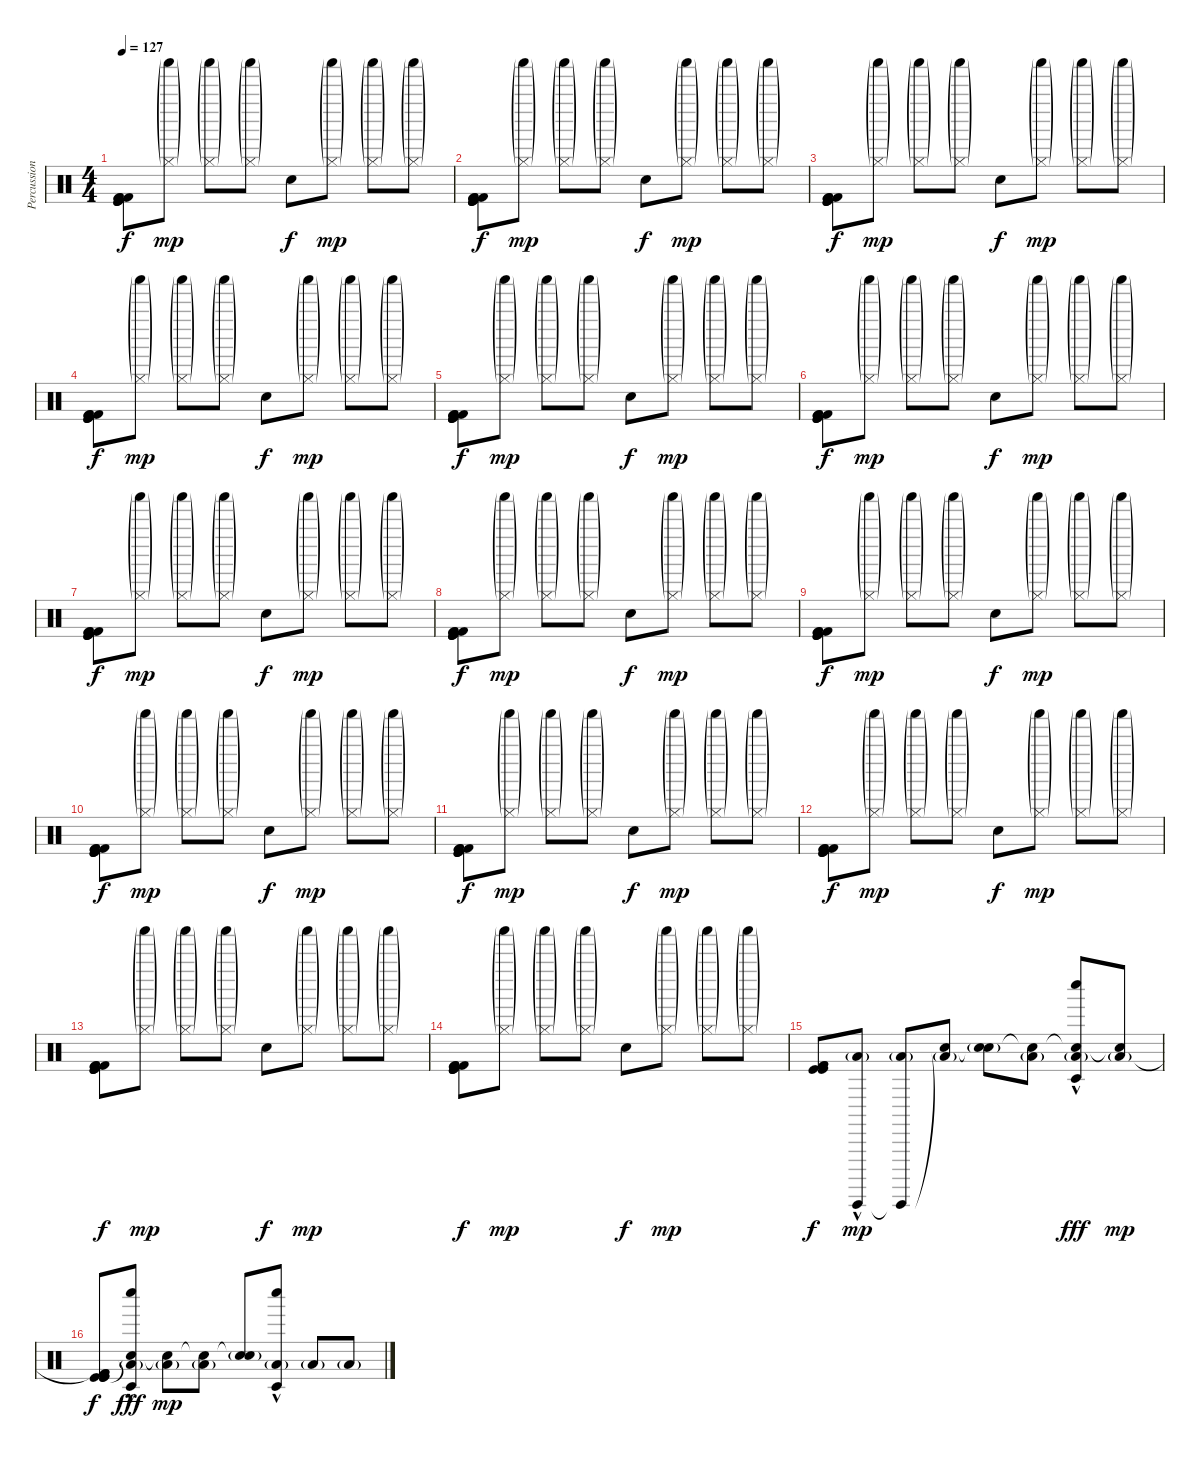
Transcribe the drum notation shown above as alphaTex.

\track ("Percussion" "Percussion") {instrument percussion}
\staff {score}
\articulation defaults
\ts (4 4)
\tempo 127
\clef neutral
\ks c
("Kick (hit)" "Kick (hit) 2" "Kick (hit)" "Kick (hit) 2" "Kick (hit)" "Kick (hit) 2").8{dy f} ("Shaker (hit)"{g} "Hi-Hat (closed)"{g}).8{dy mp} ("Shaker (hit)"{g} "Hi-Hat (closed)"{g}).8 ("Shaker (hit)"{g} "Hi-Hat (closed)"{g}).8 "Electric Snare (hit)".8{dy f} ("Shaker (hit)"{g} "Hi-Hat (closed)"{g}).8{dy mp} ("Shaker (hit)"{g} "Hi-Hat (closed)"{g}).8 ("Shaker (hit)"{g} "Hi-Hat (closed)"{g}).8 |
("Kick (hit)" "Kick (hit) 2" "Kick (hit)" "Kick (hit) 2" "Kick (hit)" "Kick (hit) 2").8{dy f} ("Shaker (hit)"{g} "Hi-Hat (closed)"{g}).8{dy mp} ("Shaker (hit)"{g} "Hi-Hat (closed)"{g}).8 ("Shaker (hit)"{g} "Hi-Hat (closed)"{g}).8 "Electric Snare (hit)".8{dy f} ("Shaker (hit)"{g} "Hi-Hat (closed)"{g}).8{dy mp} ("Shaker (hit)"{g} "Hi-Hat (closed)"{g}).8 ("Shaker (hit)"{g} "Hi-Hat (closed)"{g}).8 |
("Kick (hit)" "Kick (hit) 2" "Kick (hit)" "Kick (hit) 2" "Kick (hit)" "Kick (hit) 2").8{dy f} ("Shaker (hit)"{g} "Hi-Hat (closed)"{g}).8{dy mp} ("Shaker (hit)"{g} "Hi-Hat (closed)"{g}).8 ("Shaker (hit)"{g} "Hi-Hat (closed)"{g}).8 "Electric Snare (hit)".8{dy f} ("Shaker (hit)"{g} "Hi-Hat (closed)"{g}).8{dy mp} ("Shaker (hit)"{g} "Hi-Hat (closed)"{g}).8 ("Shaker (hit)"{g} "Hi-Hat (closed)"{g}).8 |
("Kick (hit)" "Kick (hit) 2" "Kick (hit)" "Kick (hit) 2" "Kick (hit)" "Kick (hit) 2").8{dy f} ("Shaker (hit)"{g} "Hi-Hat (closed)"{g}).8{dy mp} ("Shaker (hit)"{g} "Hi-Hat (closed)"{g}).8 ("Shaker (hit)"{g} "Hi-Hat (closed)"{g}).8 "Electric Snare (hit)".8{dy f} ("Shaker (hit)"{g} "Hi-Hat (closed)"{g}).8{dy mp} ("Shaker (hit)"{g} "Hi-Hat (closed)"{g}).8 ("Shaker (hit)"{g} "Hi-Hat (closed)"{g}).8 |
("Kick (hit)" "Kick (hit) 2" "Kick (hit)" "Kick (hit) 2" "Kick (hit)" "Kick (hit) 2").8{dy f} ("Shaker (hit)"{g} "Hi-Hat (closed)"{g}).8{dy mp} ("Shaker (hit)"{g} "Hi-Hat (closed)"{g}).8 ("Shaker (hit)"{g} "Hi-Hat (closed)"{g}).8 "Electric Snare (hit)".8{dy f} ("Shaker (hit)"{g} "Hi-Hat (closed)"{g}).8{dy mp} ("Shaker (hit)"{g} "Hi-Hat (closed)"{g}).8 ("Shaker (hit)"{g} "Hi-Hat (closed)"{g}).8 |
("Kick (hit)" "Kick (hit) 2" "Kick (hit)" "Kick (hit) 2" "Kick (hit)" "Kick (hit) 2").8{dy f} ("Shaker (hit)"{g} "Hi-Hat (closed)"{g}).8{dy mp} ("Shaker (hit)"{g} "Hi-Hat (closed)"{g}).8 ("Shaker (hit)"{g} "Hi-Hat (closed)"{g}).8 "Electric Snare (hit)".8{dy f} ("Shaker (hit)"{g} "Hi-Hat (closed)"{g}).8{dy mp} ("Shaker (hit)"{g} "Hi-Hat (closed)"{g}).8 ("Shaker (hit)"{g} "Hi-Hat (closed)"{g}).8 |
("Kick (hit)" "Kick (hit) 2" "Kick (hit)" "Kick (hit) 2" "Kick (hit)" "Kick (hit) 2").8{dy f} ("Shaker (hit)"{g} "Hi-Hat (closed)"{g}).8{dy mp} ("Shaker (hit)"{g} "Hi-Hat (closed)"{g}).8 ("Shaker (hit)"{g} "Hi-Hat (closed)"{g}).8 "Electric Snare (hit)".8{dy f} ("Shaker (hit)"{g} "Hi-Hat (closed)"{g}).8{dy mp} ("Shaker (hit)"{g} "Hi-Hat (closed)"{g}).8 ("Shaker (hit)"{g} "Hi-Hat (closed)"{g}).8 |
("Kick (hit)" "Kick (hit) 2" "Kick (hit)" "Kick (hit) 2" "Kick (hit)" "Kick (hit) 2").8{dy f} ("Shaker (hit)"{g} "Hi-Hat (closed)"{g}).8{dy mp} ("Shaker (hit)"{g} "Hi-Hat (closed)"{g}).8 ("Shaker (hit)"{g} "Hi-Hat (closed)"{g}).8 "Electric Snare (hit)".8{dy f} ("Shaker (hit)"{g} "Hi-Hat (closed)"{g}).8{dy mp} ("Shaker (hit)"{g} "Hi-Hat (closed)"{g}).8 ("Shaker (hit)"{g} "Hi-Hat (closed)"{g}).8 |
("Kick (hit)" "Kick (hit) 2" "Kick (hit)" "Kick (hit) 2" "Kick (hit)" "Kick (hit) 2").8{dy f} ("Shaker (hit)"{g} "Hi-Hat (closed)"{g}).8{dy mp} ("Shaker (hit)"{g} "Hi-Hat (closed)"{g}).8 ("Shaker (hit)"{g} "Hi-Hat (closed)"{g}).8 "Electric Snare (hit)".8{dy f} ("Shaker (hit)"{g} "Hi-Hat (closed)"{g}).8{dy mp} ("Shaker (hit)"{g} "Hi-Hat (closed)"{g}).8 ("Shaker (hit)"{g} "Hi-Hat (closed)"{g}).8 |
("Kick (hit)" "Kick (hit) 2" "Kick (hit)" "Kick (hit) 2" "Kick (hit)" "Kick (hit) 2").8{dy f} ("Shaker (hit)"{g} "Hi-Hat (closed)"{g}).8{dy mp} ("Shaker (hit)"{g} "Hi-Hat (closed)"{g}).8 ("Shaker (hit)"{g} "Hi-Hat (closed)"{g}).8 "Electric Snare (hit)".8{dy f} ("Shaker (hit)"{g} "Hi-Hat (closed)"{g}).8{dy mp} ("Shaker (hit)"{g} "Hi-Hat (closed)"{g}).8 ("Shaker (hit)"{g} "Hi-Hat (closed)"{g}).8 |
("Kick (hit)" "Kick (hit) 2" "Kick (hit)" "Kick (hit) 2" "Kick (hit)" "Kick (hit) 2").8{dy f} ("Shaker (hit)"{g} "Hi-Hat (closed)"{g}).8{dy mp} ("Shaker (hit)"{g} "Hi-Hat (closed)"{g}).8 ("Shaker (hit)"{g} "Hi-Hat (closed)"{g}).8 "Electric Snare (hit)".8{dy f} ("Shaker (hit)"{g} "Hi-Hat (closed)"{g}).8{dy mp} ("Shaker (hit)"{g} "Hi-Hat (closed)"{g}).8 ("Shaker (hit)"{g} "Hi-Hat (closed)"{g}).8 |
("Kick (hit)" "Kick (hit) 2" "Kick (hit)" "Kick (hit) 2" "Kick (hit)" "Kick (hit) 2").8{dy f} ("Shaker (hit)"{g} "Hi-Hat (closed)"{g}).8{dy mp} ("Shaker (hit)"{g} "Hi-Hat (closed)"{g}).8 ("Shaker (hit)"{g} "Hi-Hat (closed)"{g}).8 "Electric Snare (hit)".8{dy f} ("Shaker (hit)"{g} "Hi-Hat (closed)"{g}).8{dy mp} ("Shaker (hit)"{g} "Hi-Hat (closed)"{g}).8 ("Shaker (hit)"{g} "Hi-Hat (closed)"{g}).8 |
("Kick (hit)" "Kick (hit) 2" "Kick (hit)" "Kick (hit) 2" "Kick (hit)" "Kick (hit) 2").8{dy f} ("Shaker (hit)"{g} "Hi-Hat (closed)"{g}).8{dy mp} ("Shaker (hit)"{g} "Hi-Hat (closed)"{g}).8 ("Shaker (hit)"{g} "Hi-Hat (closed)"{g}).8 "Electric Snare (hit)".8{dy f} ("Shaker (hit)"{g} "Hi-Hat (closed)"{g}).8{dy mp} ("Shaker (hit)"{g} "Hi-Hat (closed)"{g}).8 ("Shaker (hit)"{g} "Hi-Hat (closed)"{g}).8 |
("Kick (hit)" "Kick (hit) 2" "Kick (hit)" "Kick (hit) 2" "Kick (hit)" "Kick (hit) 2").8{dy f} ("Shaker (hit)"{g} "Hi-Hat (closed)"{g}).8{dy mp} ("Shaker (hit)"{g} "Hi-Hat (closed)"{g}).8 ("Shaker (hit)"{g} "Hi-Hat (closed)"{g}).8 "Electric Snare (hit)".8{dy f} ("Shaker (hit)"{g} "Hi-Hat (closed)"{g}).8{dy mp} ("Shaker (hit)"{g} "Hi-Hat (closed)"{g}).8 ("Shaker (hit)"{g} "Hi-Hat (closed)"{g}).8 |
("Kick (hit)" "Kick (hit) 2" "Kick (hit)" "Kick (hit) 2").8{dy f} ("Guiro (hit)"{hac} "Low Tom (hit)"{g}).8{dy mp} ("Guiro (hit)"{t} "Low Tom (hit)"{g}).8 ("Snare (hit)"{t} "Low Tom (hit)"{g}).8 ("Snare (hit)"{t} "Snare (hit) 2"{g}).8 ("Snare (hit)"{t} "Low Tom (hit)"{g}).8 ("Snare (hit)"{t} "Low Tom (hit)"{g} "Whistle low (hit)" "Timbale low (hit)"{hac}).8{dy fff} ("Snare (hit)"{t} "Low Tom (hit)"{g}).8{dy mp} |
("Kick (hit)" "Kick (hit) 2"{t} "Kick (hit)" "Kick (hit) 2" "Kick (hit)").8{dy f} ("Snare (hit)"{t} "Low Tom (hit)"{g} "Whistle low (hit)" "Timbale low (hit)"{hac}).8{dy fff} ("Snare (hit)"{t} "Low Tom (hit)"{g}).8{dy mp} ("Snare (hit)"{t} "Low Tom (hit)"{g}).8 ("Snare (hit)"{t} "Snare (hit) 2"{g}).8 ("Whistle low (hit)" "Timbale low (hit)"{hac} "Low Tom (hit)"{g}).8 "Low Tom (hit)"{g}.8 "Low Tom (hit)"{g}.8
